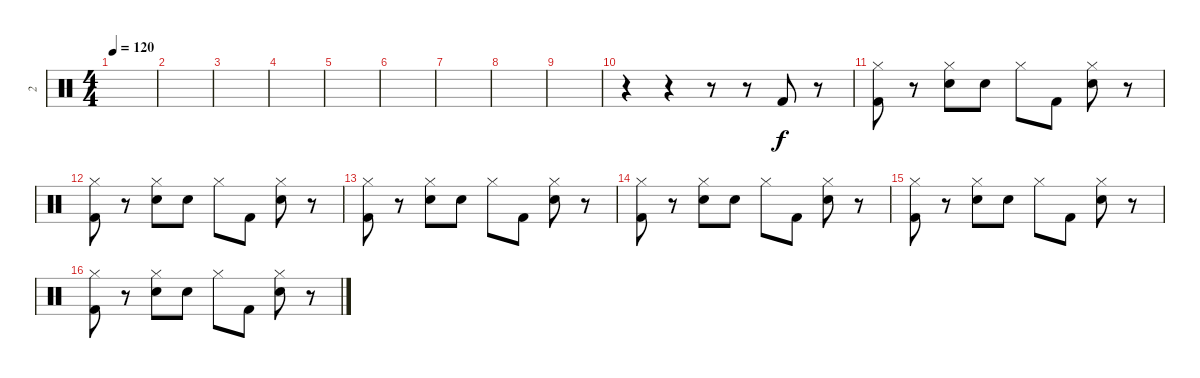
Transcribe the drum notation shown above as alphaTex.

\track ("2" "2") {instrument percussion}
\staff {score}
\articulation defaults
\ts (4 4)
\tempo 120
\clef neutral
\ks c
|
|
|
|
|
|
|
|
|
r.4 r.4 r.8 r.8 "Kick (hit) 2".8 r.8 |
("Hi-Hat (closed)" "Kick (hit) 2").8 r.8 ("Hi-Hat (closed)" "Snare (hit) 2").8 "Snare (hit) 2".8 "Hi-Hat (closed)".8 "Kick (hit) 2".8 ("Hi-Hat (closed)" "Snare (hit) 2").8 r.8 |
("Hi-Hat (closed)" "Kick (hit) 2").8 r.8 ("Hi-Hat (closed)" "Snare (hit) 2").8 "Snare (hit) 2".8 "Hi-Hat (closed)".8 "Kick (hit) 2".8 ("Hi-Hat (closed)" "Snare (hit) 2").8 r.8 |
("Hi-Hat (closed)" "Kick (hit) 2").8 r.8 ("Hi-Hat (closed)" "Snare (hit) 2").8 "Snare (hit) 2".8 "Hi-Hat (closed)".8 "Kick (hit) 2".8 ("Hi-Hat (closed)" "Snare (hit) 2").8 r.8 |
("Hi-Hat (closed)" "Kick (hit) 2").8 r.8 ("Hi-Hat (closed)" "Snare (hit) 2").8 "Snare (hit) 2".8 "Hi-Hat (closed)".8 "Kick (hit) 2".8 ("Hi-Hat (closed)" "Snare (hit) 2").8 r.8 |
("Hi-Hat (closed)" "Kick (hit) 2").8 r.8 ("Hi-Hat (closed)" "Snare (hit) 2").8 "Snare (hit) 2".8 "Hi-Hat (closed)".8 "Kick (hit) 2".8 ("Hi-Hat (closed)" "Snare (hit) 2").8 r.8 |
("Hi-Hat (closed)" "Kick (hit) 2").8 r.8 ("Hi-Hat (closed)" "Snare (hit) 2").8 "Snare (hit) 2".8 "Hi-Hat (closed)".8 "Kick (hit) 2".8 ("Hi-Hat (closed)" "Snare (hit) 2").8 r.8
